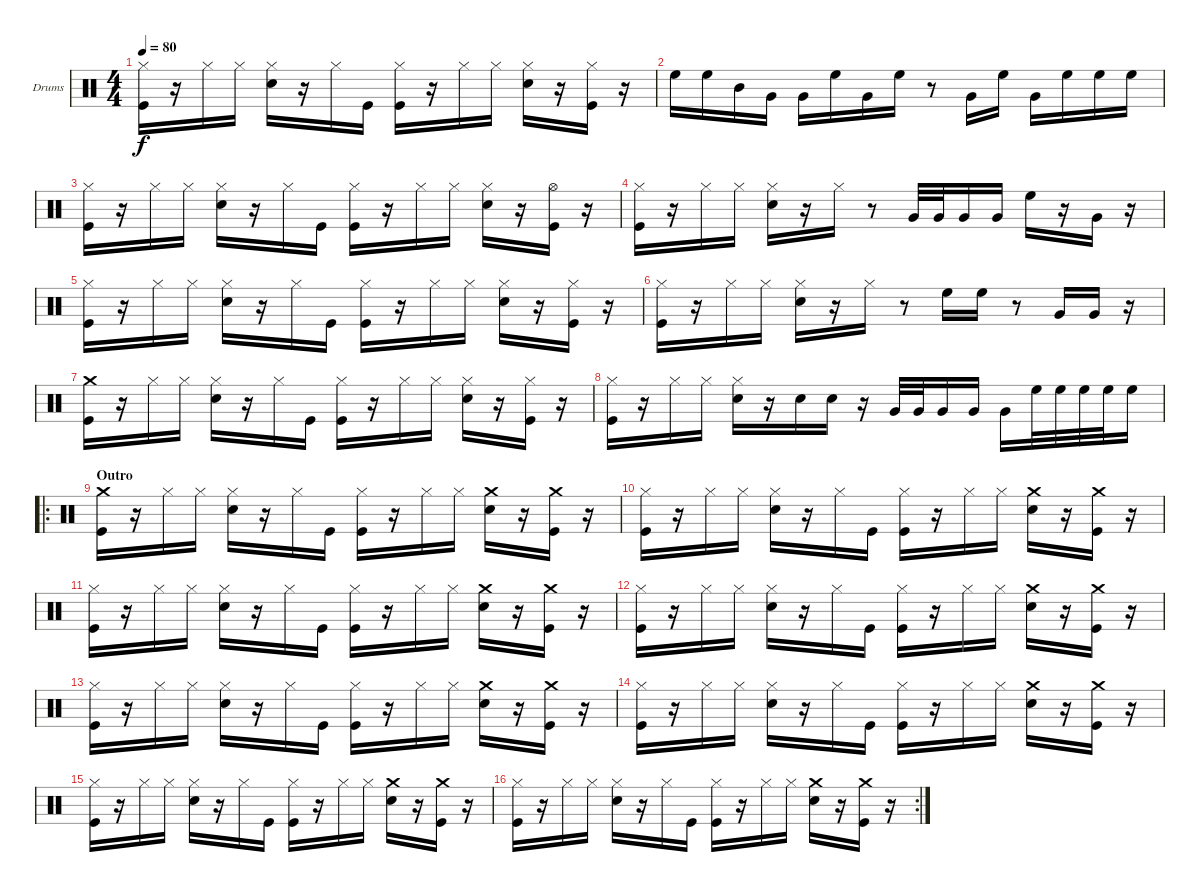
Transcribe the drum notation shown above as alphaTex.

\bracketExtendMode groupsimilarinstruments
\firstSystemTrackNameOrientation horizontal
\otherSystemsTrackNameOrientation horizontal
\track ("Drumkit" "Drums") {instrument percussion}
\staff {score}
\articulation defaults
\ts (4 4)
\tempo 80
\clef neutral
\ks c
("Kick (hit)" "Hi-Hat (closed)").16{dy f} r.16 "Hi-Hat (closed)".16 "Hi-Hat (closed)".16 ("Snare (hit) 2" "Hi-Hat (closed)").16 r.16 "Hi-Hat (closed)".16 "Kick (hit)".16 ("Kick (hit)" "Hi-Hat (closed)").16 r.16 "Hi-Hat (closed)".16 "Hi-Hat (closed)".16 ("Snare (hit) 2" "Hi-Hat (closed)").16 r.16 ("Kick (hit)" "Hi-Hat (closed)").16 r.16 |
"High Floor Tom (hit)".16 "High Floor Tom (hit)".16 "Mid Tom (hit)".16 "Very Low Tom (hit)".16 "Very Low Tom (hit)".16 "High Floor Tom (hit)".16 "Very Low Tom (hit)".16 "High Floor Tom (hit)".16 r.8 "Very Low Tom (hit)".16 "High Floor Tom (hit)".16 "Very Low Tom (hit)".16 "High Floor Tom (hit)".16 "High Floor Tom (hit)".16 "High Floor Tom (hit)".16 |
("Kick (hit)" "Hi-Hat (closed)").16 r.16 "Hi-Hat (closed)".16 "Hi-Hat (closed)".16 ("Snare (hit) 2" "Hi-Hat (closed)").16 r.16 "Hi-Hat (closed)".16 "Kick (hit)".16 ("Kick (hit)" "Hi-Hat (closed)").16 r.16 "Hi-Hat (closed)".16 "Hi-Hat (closed)".16 ("Snare (hit) 2" "Hi-Hat (closed)").16 r.16 ("Kick (hit)" "Hi-Hat (open)").16 r.16 |
("Kick (hit)" "Hi-Hat (closed)").16 r.16 "Hi-Hat (closed)".16 "Hi-Hat (closed)".16 ("Snare (hit) 2" "Hi-Hat (closed)").16 r.16 "Hi-Hat (closed)".16 r.8 "Very Low Tom (hit)".32 "Very Low Tom (hit)".32 "Very Low Tom (hit)".16 "Very Low Tom (hit)".16 "High Floor Tom (hit)".16 r.16 "Very Low Tom (hit)".16 r.16 |
("Kick (hit)" "Hi-Hat (closed)").16 r.16 "Hi-Hat (closed)".16 "Hi-Hat (closed)".16 ("Snare (hit) 2" "Hi-Hat (closed)").16 r.16 "Hi-Hat (closed)".16 "Kick (hit)".16 ("Kick (hit)" "Hi-Hat (closed)").16 r.16 "Hi-Hat (closed)".16 "Hi-Hat (closed)".16 ("Snare (hit) 2" "Hi-Hat (closed)").16 r.16 ("Kick (hit)" "Hi-Hat (closed)").16 r.16 |
("Kick (hit)" "Hi-Hat (closed)").16 r.16 "Hi-Hat (closed)".16 "Hi-Hat (closed)".16 ("Snare (hit) 2" "Hi-Hat (closed)").16 r.16 "Hi-Hat (closed)".16 r.8 "High Floor Tom (hit)".16 "High Floor Tom (hit)".16 r.8 "Very Low Tom (hit)".16 "Very Low Tom (hit)".16 r.16 |
("Kick (hit)" "Crash medium (hit)").16 r.16 "Hi-Hat (closed)".16 "Hi-Hat (closed)".16 ("Snare (hit) 2" "Hi-Hat (closed)").16 r.16 "Hi-Hat (closed)".16 "Kick (hit)".16 ("Kick (hit)" "Hi-Hat (closed)").16 r.16 "Hi-Hat (closed)".16 "Hi-Hat (closed)".16 ("Snare (hit) 2" "Hi-Hat (closed)").16 r.16 ("Kick (hit)" "Hi-Hat (closed)").16 r.16 |
("Kick (hit)" "Hi-Hat (closed)").16 r.16 "Hi-Hat (closed)".16 "Hi-Hat (closed)".16 ("Snare (hit) 2" "Hi-Hat (closed)").16 r.16 "Snare (hit) 2".16 "Snare (hit) 2".16 r.16 "Very Low Tom (hit)".32 "Very Low Tom (hit)".32 "Very Low Tom (hit)".16 "Very Low Tom (hit)".16 "Very Low Tom (hit)".16 "High Floor Tom (hit)".32 "High Floor Tom (hit)".32 "High Floor Tom (hit)".32 "High Floor Tom (hit)".32 "High Floor Tom (hit)".16 |
\ro
\section ("" "Outro")
("Kick (hit)" "Crash medium (hit)").16 r.16 "Hi-Hat (closed)".16 "Hi-Hat (closed)".16 ("Snare (hit) 2" "Hi-Hat (closed)").16 r.16 "Hi-Hat (closed)".16 "Kick (hit)".16 ("Kick (hit)" "Hi-Hat (closed)").16 r.16 "Hi-Hat (closed)".16 "Hi-Hat (closed)".16 ("Crash medium (hit)" "Snare (hit) 2").16 r.16 ("Kick (hit)" "Crash medium (hit)").16 r.16 |
("Kick (hit)" "Hi-Hat (closed)").16 r.16 "Hi-Hat (closed)".16 "Hi-Hat (closed)".16 ("Snare (hit) 2" "Hi-Hat (closed)").16 r.16 "Hi-Hat (closed)".16 "Kick (hit)".16 ("Kick (hit)" "Hi-Hat (closed)").16 r.16 "Hi-Hat (closed)".16 "Hi-Hat (closed)".16 ("Crash medium (hit)" "Snare (hit) 2").16 r.16 ("Kick (hit)" "Crash medium (hit)").16 r.16 |
("Kick (hit)" "Hi-Hat (closed)").16 r.16 "Hi-Hat (closed)".16 "Hi-Hat (closed)".16 ("Snare (hit) 2" "Hi-Hat (closed)").16 r.16 "Hi-Hat (closed)".16 "Kick (hit)".16 ("Kick (hit)" "Hi-Hat (closed)").16 r.16 "Hi-Hat (closed)".16 "Hi-Hat (closed)".16 ("Crash medium (hit)" "Snare (hit) 2").16 r.16 ("Kick (hit)" "Crash medium (hit)").16 r.16 |
("Kick (hit)" "Hi-Hat (closed)").16 r.16 "Hi-Hat (closed)".16 "Hi-Hat (closed)".16 ("Snare (hit) 2" "Hi-Hat (closed)").16 r.16 "Hi-Hat (closed)".16 "Kick (hit)".16 ("Kick (hit)" "Hi-Hat (closed)").16 r.16 "Hi-Hat (closed)".16 "Hi-Hat (closed)".16 ("Crash medium (hit)" "Snare (hit) 2").16 r.16 ("Kick (hit)" "Crash medium (hit)").16 r.16 |
("Kick (hit)" "Hi-Hat (closed)").16 r.16 "Hi-Hat (closed)".16 "Hi-Hat (closed)".16 ("Snare (hit) 2" "Hi-Hat (closed)").16 r.16 "Hi-Hat (closed)".16 "Kick (hit)".16 ("Kick (hit)" "Hi-Hat (closed)").16 r.16 "Hi-Hat (closed)".16 "Hi-Hat (closed)".16 ("Crash medium (hit)" "Snare (hit) 2").16 r.16 ("Kick (hit)" "Crash medium (hit)").16 r.16 |
("Kick (hit)" "Hi-Hat (closed)").16 r.16 "Hi-Hat (closed)".16 "Hi-Hat (closed)".16 ("Snare (hit) 2" "Hi-Hat (closed)").16 r.16 "Hi-Hat (closed)".16 "Kick (hit)".16 ("Kick (hit)" "Hi-Hat (closed)").16 r.16 "Hi-Hat (closed)".16 "Hi-Hat (closed)".16 ("Crash medium (hit)" "Snare (hit) 2").16 r.16 ("Kick (hit)" "Crash medium (hit)").16 r.16 |
("Kick (hit)" "Hi-Hat (closed)").16 r.16 "Hi-Hat (closed)".16 "Hi-Hat (closed)".16 ("Snare (hit) 2" "Hi-Hat (closed)").16 r.16 "Hi-Hat (closed)".16 "Kick (hit)".16 ("Kick (hit)" "Hi-Hat (closed)").16 r.16 "Hi-Hat (closed)".16 "Hi-Hat (closed)".16 ("Crash medium (hit)" "Snare (hit) 2").16 r.16 ("Kick (hit)" "Crash medium (hit)").16 r.16 |
\rc 2
("Kick (hit)" "Hi-Hat (closed)").16 r.16 "Hi-Hat (closed)".16 "Hi-Hat (closed)".16 ("Snare (hit) 2" "Hi-Hat (closed)").16 r.16 "Hi-Hat (closed)".16 "Kick (hit)".16 ("Kick (hit)" "Hi-Hat (closed)").16 r.16 "Hi-Hat (closed)".16 "Hi-Hat (closed)".16 ("Crash medium (hit)" "Snare (hit) 2").16 r.16 ("Kick (hit)" "Crash medium (hit)").16 r.16
